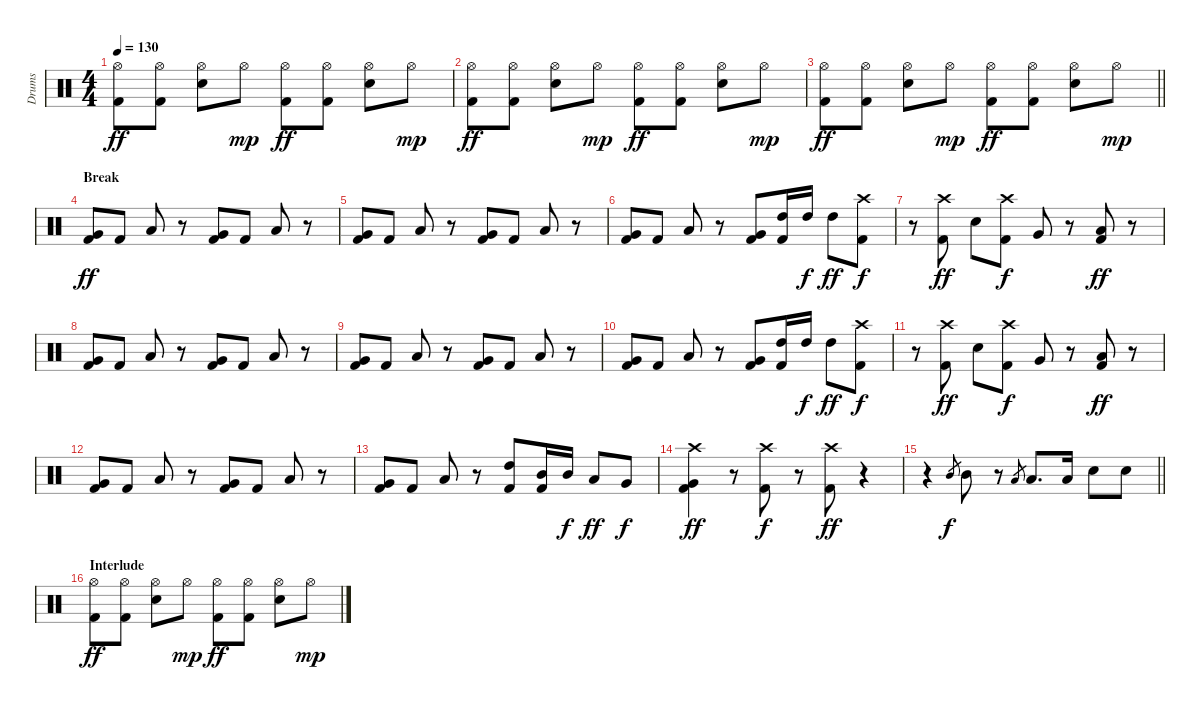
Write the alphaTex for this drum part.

\track ("Drums" "Drums") {instrument percussion}
\staff
\articulation defaults
\ts (4 4)
\tempo 130
\clef neutral
\ks c
("Hi-Hat (open)" "Kick (hit) 2").8{dy ff} ("Hi-Hat (open)" "Kick (hit) 2").8 ("Hi-Hat (open)" "Snare (hit) 2").8 "Hi-Hat (open)".8{dy mp} ("Hi-Hat (open)" "Kick (hit) 2").8{dy ff} ("Hi-Hat (open)" "Kick (hit) 2").8 ("Hi-Hat (open)" "Snare (hit) 2").8 "Hi-Hat (open)".8{dy mp} |
("Hi-Hat (open)" "Kick (hit) 2").8{dy ff} ("Hi-Hat (open)" "Kick (hit) 2").8 ("Hi-Hat (open)" "Snare (hit) 2").8 "Hi-Hat (open)".8{dy mp} ("Hi-Hat (open)" "Kick (hit) 2").8{dy ff} ("Hi-Hat (open)" "Kick (hit) 2").8 ("Hi-Hat (open)" "Snare (hit) 2").8 "Hi-Hat (open)".8{dy mp} |
\barLineRight lightlight
("Hi-Hat (open)" "Kick (hit) 2").8{dy ff} ("Hi-Hat (open)" "Kick (hit) 2").8 ("Hi-Hat (open)" "Snare (hit) 2").8 "Hi-Hat (open)".8{dy mp} ("Hi-Hat (open)" "Kick (hit) 2").8{dy ff} ("Hi-Hat (open)" "Kick (hit) 2").8 ("Hi-Hat (open)" "Snare (hit) 2").8 "Hi-Hat (open)".8{dy mp} |
\section ("" "Break")
("Very Low Tom (hit)" "Kick (hit) 2").8{dy ff} "Kick (hit) 2".8 "Low Tom (hit)".8 r.8 ("Very Low Tom (hit)" "Kick (hit) 2").8 "Kick (hit) 2".8 "Low Tom (hit)".8 r.8 |
("Very Low Tom (hit)" "Kick (hit) 2").8 "Kick (hit) 2".8 "Low Tom (hit)".8 r.8 ("Very Low Tom (hit)" "Kick (hit) 2").8 "Kick (hit) 2".8 "Low Tom (hit)".8 r.8 |
("Very Low Tom (hit)" "Kick (hit) 2").8 "Kick (hit) 2".8 "Low Tom (hit)".8 r.8 ("Very Low Tom (hit)" "Kick (hit) 2").8 ("High Tom (hit)" "Kick (hit) 2").16 "High Tom (hit)".16{dy f} "High Tom (hit)".8{dy ff} ("Crash high (hit)" "Kick (hit) 2").8{dy f} |
r.8 ("Crash high (hit)" "Kick (hit) 2").8{dy ff} "Snare (hit) 2".8 ("Crash high (hit)" "Kick (hit) 2").8{dy f} "Very Low Tom (hit)".8 r.8 ("Low Tom (hit)" "Kick (hit) 2").8{dy ff} r.8 |
("Very Low Tom (hit)" "Kick (hit) 2").8 "Kick (hit) 2".8 "Low Tom (hit)".8 r.8 ("Very Low Tom (hit)" "Kick (hit) 2").8 "Kick (hit) 2".8 "Low Tom (hit)".8 r.8 |
("Very Low Tom (hit)" "Kick (hit) 2").8 "Kick (hit) 2".8 "Low Tom (hit)".8 r.8 ("Very Low Tom (hit)" "Kick (hit) 2").8 "Kick (hit) 2".8 "Low Tom (hit)".8 r.8 |
("Very Low Tom (hit)" "Kick (hit) 2").8 "Kick (hit) 2".8 "Low Tom (hit)".8 r.8 ("Very Low Tom (hit)" "Kick (hit) 2").8 ("High Tom (hit)" "Kick (hit) 2").16 "High Tom (hit)".16{dy f} "High Tom (hit)".8{dy ff} ("Crash high (hit)" "Kick (hit) 2").8{dy f} |
r.8 ("Crash high (hit)" "Kick (hit) 2").8{dy ff} "Snare (hit) 2".8 ("Crash high (hit)" "Kick (hit) 2").8{dy f} "Very Low Tom (hit)".8 r.8 ("Low Tom (hit)" "Kick (hit) 2").8{dy ff} r.8 |
("Very Low Tom (hit)" "Kick (hit) 2").8 "Kick (hit) 2".8 "Low Tom (hit)".8 r.8 ("Very Low Tom (hit)" "Kick (hit) 2").8 "Kick (hit) 2".8 "Low Tom (hit)".8 r.8 |
("Very Low Tom (hit)" "Kick (hit) 2").8 "Kick (hit) 2".8 "Low Tom (hit)".8 r.8 ("High Tom (hit)" "Kick (hit) 2").8 ("Mid Tom (hit)" "Kick (hit) 2").16 "Mid Tom (hit)".16{dy f} "Low Tom (hit)".8{dy ff} "Very Low Tom (hit)".8{dy f} |
("Crash high (hit)" "Very Low Tom (hit)" "Kick (hit) 2").4{dy ff} r.8 ("Crash high (hit)" "Kick (hit) 2").8{dy f} r.8 ("Crash high (hit)" "Kick (hit) 2").8{dy ff} r.4 |
\barLineRight lightlight
r.4 "Mid Tom (hit)".8{gr dy f} "Mid Tom (hit)".8 r.8 "Low Tom (hit)".8{gr} "Low Tom (hit)".8{d} "Low Tom (hit)".16 "Snare (hit) 2".8 "Snare (hit) 2".8 |
\section ("" "Interlude")
("Hi-Hat (open)" "Kick (hit) 2").8{dy ff} ("Hi-Hat (open)" "Kick (hit) 2").8 ("Hi-Hat (open)" "Snare (hit) 2").8 "Hi-Hat (open)".8{dy mp} ("Hi-Hat (open)" "Kick (hit) 2").8{dy ff} ("Hi-Hat (open)" "Kick (hit) 2").8 ("Hi-Hat (open)" "Snare (hit) 2").8 "Hi-Hat (open)".8{dy mp}
